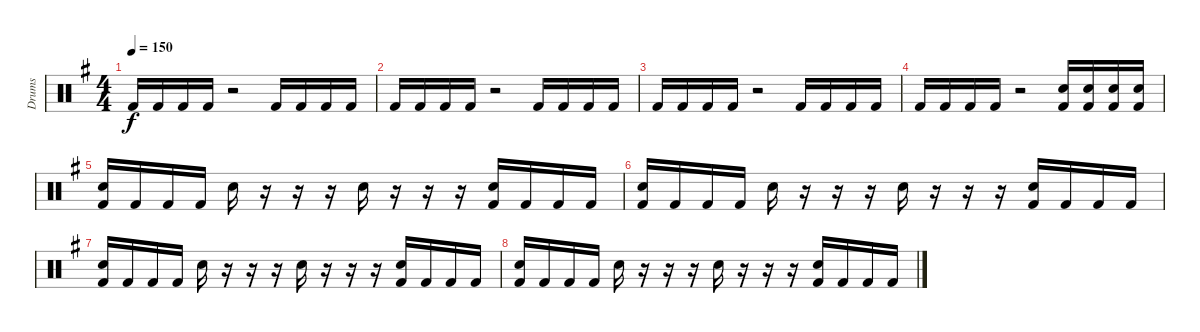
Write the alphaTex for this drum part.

\track ("Drums" "Drums") {instrument percussion}
\staff {score}
\articulation defaults
\ts (4 4)
\tempo 150
\clef neutral
\ks g "Kick (hit) 2".16{dy f} "Kick (hit) 2".16 "Kick (hit) 2".16 "Kick (hit) 2".16
r.2 "Kick (hit) 2".16 "Kick (hit) 2".16 "Kick (hit) 2".16 "Kick (hit) 2".16 |
"Kick (hit) 2".16 "Kick (hit) 2".16 "Kick (hit) 2".16 "Kick (hit) 2".16 r.2 "Kick (hit) 2".16 "Kick (hit) 2".16 "Kick (hit) 2".16 "Kick (hit) 2".16 |
"Kick (hit) 2".16 "Kick (hit) 2".16 "Kick (hit) 2".16 "Kick (hit) 2".16 r.2 "Kick (hit) 2".16 "Kick (hit) 2".16 "Kick (hit) 2".16 "Kick (hit) 2".16 |
"Kick (hit) 2".16 "Kick (hit) 2".16 "Kick (hit) 2".16 "Kick (hit) 2".16 r.2 ("Electric Snare (hit)" "Kick (hit) 2").16 ("Electric Snare (hit)" "Kick (hit) 2").16 ("Electric Snare (hit)" "Kick (hit) 2").16 ("Electric Snare (hit)" "Kick (hit) 2").16 |
("Electric Snare (hit)" "Kick (hit) 2").16 "Kick (hit) 2".16 "Kick (hit) 2".16 "Kick (hit) 2".16 "Electric Snare (hit)".16 r.16 r.16 r.16 "Electric Snare (hit)".16 r.16 r.16 r.16 ("Electric Snare (hit)" "Kick (hit) 2").16 "Kick (hit) 2".16 "Kick (hit) 2".16 "Kick (hit) 2".16 |
("Electric Snare (hit)" "Kick (hit) 2").16 "Kick (hit) 2".16 "Kick (hit) 2".16 "Kick (hit) 2".16 "Electric Snare (hit)".16 r.16 r.16 r.16 "Electric Snare (hit)".16 r.16 r.16 r.16 ("Electric Snare (hit)" "Kick (hit) 2").16 "Kick (hit) 2".16 "Kick (hit) 2".16 "Kick (hit) 2".16 |
("Electric Snare (hit)" "Kick (hit) 2").16 "Kick (hit) 2".16 "Kick (hit) 2".16 "Kick (hit) 2".16 "Electric Snare (hit)".16 r.16 r.16 r.16 "Electric Snare (hit)".16 r.16 r.16 r.16 ("Electric Snare (hit)" "Kick (hit) 2").16 "Kick (hit) 2".16 "Kick (hit) 2".16 "Kick (hit) 2".16 |
("Electric Snare (hit)" "Kick (hit) 2").16 "Kick (hit) 2".16 "Kick (hit) 2".16 "Kick (hit) 2".16 "Electric Snare (hit)".16 r.16 r.16 r.16 "Electric Snare (hit)".16 r.16 r.16 r.16 ("Electric Snare (hit)" "Kick (hit) 2").16 "Kick (hit) 2".16 "Kick (hit) 2".16 "Kick (hit) 2".16
